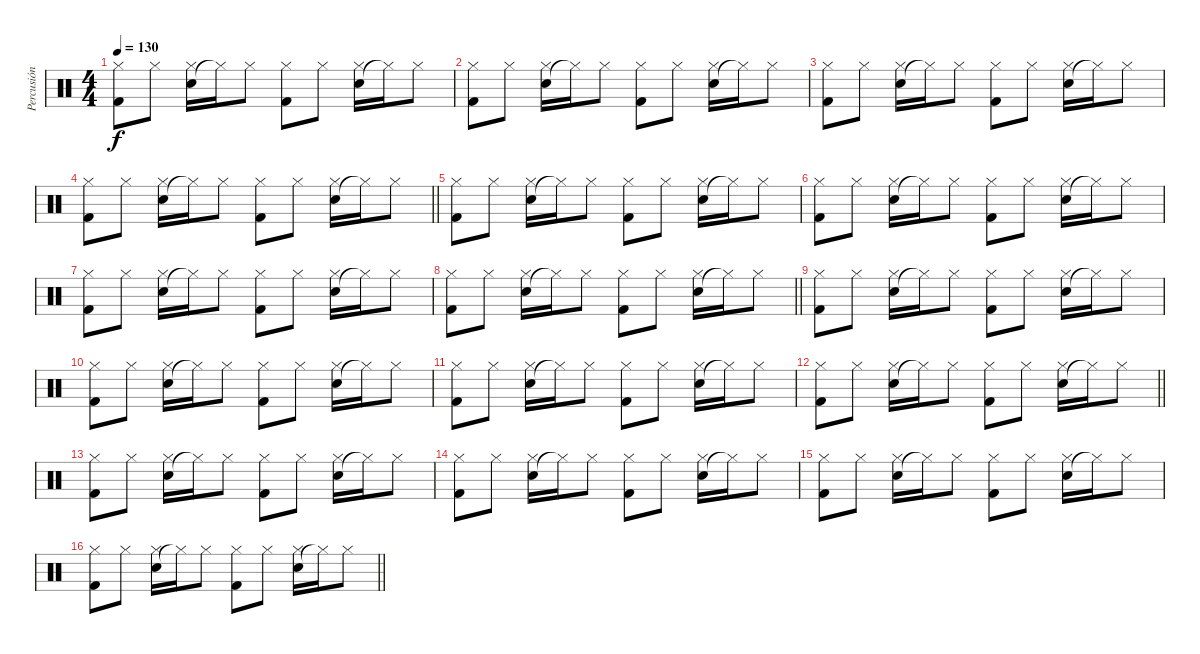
\track ("Percusión" "Percusión") {instrument percussion}
\staff {score}
\articulation defaults
\ts (4 4)
\tempo 130
\clef neutral
\ks c
("Kick (hit) 2" "Hi-Hat (closed)").8{dy f} "Hi-Hat (closed)".8 ("Snare (hit) 2" "Hi-Hat (closed)").16 "Hi-Hat (closed)"{t}.16 "Hi-Hat (closed)".8 ("Kick (hit) 2" "Hi-Hat (closed)").8 "Hi-Hat (closed)".8 ("Snare (hit) 2" "Hi-Hat (closed)").16 "Hi-Hat (closed)"{t}.16 "Hi-Hat (closed)".8 |
("Kick (hit) 2" "Hi-Hat (closed)").8 "Hi-Hat (closed)".8 ("Snare (hit) 2" "Hi-Hat (closed)").16 "Hi-Hat (closed)"{t}.16 "Hi-Hat (closed)".8 ("Kick (hit) 2" "Hi-Hat (closed)").8 "Hi-Hat (closed)".8 ("Snare (hit) 2" "Hi-Hat (closed)").16 "Hi-Hat (closed)"{t}.16 "Hi-Hat (closed)".8 |
("Kick (hit) 2" "Hi-Hat (closed)").8 "Hi-Hat (closed)".8 ("Snare (hit) 2" "Hi-Hat (closed)").16 "Hi-Hat (closed)"{t}.16 "Hi-Hat (closed)".8 ("Kick (hit) 2" "Hi-Hat (closed)").8 "Hi-Hat (closed)".8 ("Snare (hit) 2" "Hi-Hat (closed)").16 "Hi-Hat (closed)"{t}.16 "Hi-Hat (closed)".8 |
\barLineRight lightlight
("Kick (hit) 2" "Hi-Hat (closed)").8 "Hi-Hat (closed)".8 ("Snare (hit) 2" "Hi-Hat (closed)").16 "Hi-Hat (closed)"{t}.16 "Hi-Hat (closed)".8 ("Kick (hit) 2" "Hi-Hat (closed)").8 "Hi-Hat (closed)".8 ("Snare (hit) 2" "Hi-Hat (closed)").16 "Hi-Hat (closed)"{t}.16 "Hi-Hat (closed)".8 |
("Kick (hit) 2" "Hi-Hat (closed)").8 "Hi-Hat (closed)".8 ("Snare (hit) 2" "Hi-Hat (closed)").16 "Hi-Hat (closed)"{t}.16 "Hi-Hat (closed)".8 ("Kick (hit) 2" "Hi-Hat (closed)").8 "Hi-Hat (closed)".8 ("Snare (hit) 2" "Hi-Hat (closed)").16 "Hi-Hat (closed)"{t}.16 "Hi-Hat (closed)".8 |
("Kick (hit) 2" "Hi-Hat (closed)").8 "Hi-Hat (closed)".8 ("Snare (hit) 2" "Hi-Hat (closed)").16 "Hi-Hat (closed)"{t}.16 "Hi-Hat (closed)".8 ("Kick (hit) 2" "Hi-Hat (closed)").8 "Hi-Hat (closed)".8 ("Snare (hit) 2" "Hi-Hat (closed)").16 "Hi-Hat (closed)"{t}.16 "Hi-Hat (closed)".8 |
("Kick (hit) 2" "Hi-Hat (closed)").8 "Hi-Hat (closed)".8 ("Snare (hit) 2" "Hi-Hat (closed)").16 "Hi-Hat (closed)"{t}.16 "Hi-Hat (closed)".8 ("Kick (hit) 2" "Hi-Hat (closed)").8 "Hi-Hat (closed)".8 ("Snare (hit) 2" "Hi-Hat (closed)").16 "Hi-Hat (closed)"{t}.16 "Hi-Hat (closed)".8 |
\barLineRight lightlight
("Kick (hit) 2" "Hi-Hat (closed)").8 "Hi-Hat (closed)".8 ("Snare (hit) 2" "Hi-Hat (closed)").16 "Hi-Hat (closed)"{t}.16 "Hi-Hat (closed)".8 ("Kick (hit) 2" "Hi-Hat (closed)").8 "Hi-Hat (closed)".8 ("Snare (hit) 2" "Hi-Hat (closed)").16 "Hi-Hat (closed)"{t}.16 "Hi-Hat (closed)".8 |
("Kick (hit) 2" "Hi-Hat (closed)").8 "Hi-Hat (closed)".8 ("Snare (hit) 2" "Hi-Hat (closed)").16 "Hi-Hat (closed)"{t}.16 "Hi-Hat (closed)".8 ("Kick (hit) 2" "Hi-Hat (closed)").8 "Hi-Hat (closed)".8 ("Snare (hit) 2" "Hi-Hat (closed)").16 "Hi-Hat (closed)"{t}.16 "Hi-Hat (closed)".8 |
("Kick (hit) 2" "Hi-Hat (closed)").8 "Hi-Hat (closed)".8 ("Snare (hit) 2" "Hi-Hat (closed)").16 "Hi-Hat (closed)"{t}.16 "Hi-Hat (closed)".8 ("Kick (hit) 2" "Hi-Hat (closed)").8 "Hi-Hat (closed)".8 ("Snare (hit) 2" "Hi-Hat (closed)").16 "Hi-Hat (closed)"{t}.16 "Hi-Hat (closed)".8 |
("Kick (hit) 2" "Hi-Hat (closed)").8 "Hi-Hat (closed)".8 ("Snare (hit) 2" "Hi-Hat (closed)").16 "Hi-Hat (closed)"{t}.16 "Hi-Hat (closed)".8 ("Kick (hit) 2" "Hi-Hat (closed)").8 "Hi-Hat (closed)".8 ("Snare (hit) 2" "Hi-Hat (closed)").16 "Hi-Hat (closed)"{t}.16 "Hi-Hat (closed)".8 |
\barLineRight lightlight
("Kick (hit) 2" "Hi-Hat (closed)").8 "Hi-Hat (closed)".8 ("Snare (hit) 2" "Hi-Hat (closed)").16 "Hi-Hat (closed)"{t}.16 "Hi-Hat (closed)".8 ("Kick (hit) 2" "Hi-Hat (closed)").8 "Hi-Hat (closed)".8 ("Snare (hit) 2" "Hi-Hat (closed)").16 "Hi-Hat (closed)"{t}.16 "Hi-Hat (closed)".8 |
("Kick (hit) 2" "Hi-Hat (closed)").8 "Hi-Hat (closed)".8 ("Snare (hit) 2" "Hi-Hat (closed)").16 "Hi-Hat (closed)"{t}.16 "Hi-Hat (closed)".8 ("Kick (hit) 2" "Hi-Hat (closed)").8 "Hi-Hat (closed)".8 ("Snare (hit) 2" "Hi-Hat (closed)").16 "Hi-Hat (closed)"{t}.16 "Hi-Hat (closed)".8 |
("Kick (hit) 2" "Hi-Hat (closed)").8 "Hi-Hat (closed)".8 ("Snare (hit) 2" "Hi-Hat (closed)").16 "Hi-Hat (closed)"{t}.16 "Hi-Hat (closed)".8 ("Kick (hit) 2" "Hi-Hat (closed)").8 "Hi-Hat (closed)".8 ("Snare (hit) 2" "Hi-Hat (closed)").16 "Hi-Hat (closed)"{t}.16 "Hi-Hat (closed)".8 |
("Kick (hit) 2" "Hi-Hat (closed)").8 "Hi-Hat (closed)".8 ("Snare (hit) 2" "Hi-Hat (closed)").16 "Hi-Hat (closed)"{t}.16 "Hi-Hat (closed)".8 ("Kick (hit) 2" "Hi-Hat (closed)").8 "Hi-Hat (closed)".8 ("Snare (hit) 2" "Hi-Hat (closed)").16 "Hi-Hat (closed)"{t}.16 "Hi-Hat (closed)".8 |
\barLineRight lightlight
("Kick (hit) 2" "Hi-Hat (closed)").8 "Hi-Hat (closed)".8 ("Snare (hit) 2" "Hi-Hat (closed)").16 "Hi-Hat (closed)"{t}.16 "Hi-Hat (closed)".8 ("Kick (hit) 2" "Hi-Hat (closed)").8 "Hi-Hat (closed)".8 ("Snare (hit) 2" "Hi-Hat (closed)").16 "Hi-Hat (closed)"{t}.16 "Hi-Hat (closed)".8
